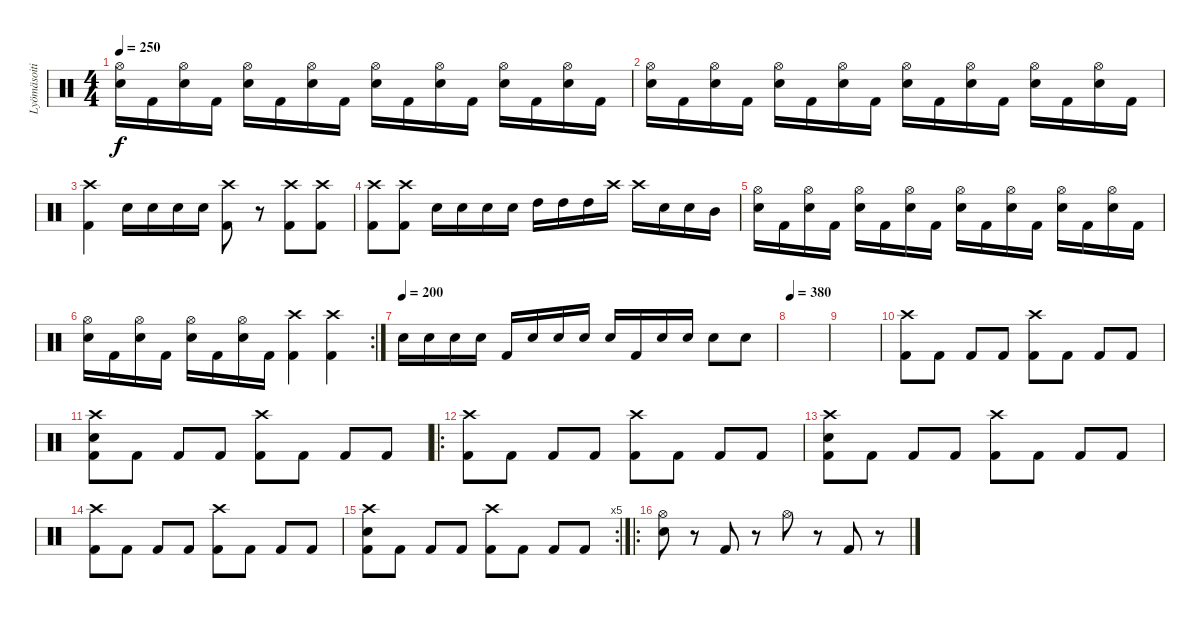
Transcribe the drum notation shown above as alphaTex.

\track ("Lyömäsoitin" "Lyömäsoiti") {instrument percussion}
\staff {score}
\articulation defaults
\ts (4 4)
\tempo 250
\clef neutral
\ks c
("Hi-Hat (open)" "Electric Snare (hit)").16{dy f} "Kick (hit) 2".16 ("Hi-Hat (open)" "Electric Snare (hit)").16 "Kick (hit) 2".16 ("Hi-Hat (open)" "Electric Snare (hit)").16 "Kick (hit) 2".16 ("Hi-Hat (open)" "Electric Snare (hit)").16 "Kick (hit) 2".16 ("Hi-Hat (open)" "Electric Snare (hit)").16 "Kick (hit) 2".16 ("Hi-Hat (open)" "Electric Snare (hit)").16 "Kick (hit) 2".16 ("Hi-Hat (open)" "Electric Snare (hit)").16 "Kick (hit) 2".16 ("Hi-Hat (open)" "Electric Snare (hit)").16 "Kick (hit) 2".16 |
("Hi-Hat (open)" "Electric Snare (hit)").16 "Kick (hit) 2".16 ("Hi-Hat (open)" "Electric Snare (hit)").16 "Kick (hit) 2".16 ("Hi-Hat (open)" "Electric Snare (hit)").16 "Kick (hit) 2".16 ("Hi-Hat (open)" "Electric Snare (hit)").16 "Kick (hit) 2".16 ("Hi-Hat (open)" "Electric Snare (hit)").16 "Kick (hit) 2".16 ("Hi-Hat (open)" "Electric Snare (hit)").16 "Kick (hit) 2".16 ("Hi-Hat (open)" "Electric Snare (hit)").16 "Kick (hit) 2".16 ("Hi-Hat (open)" "Electric Snare (hit)").16 "Kick (hit) 2".16 |
("Crash high (hit)" "Kick (hit) 2").4 "Electric Snare (hit)".16 "Electric Snare (hit)".16 "Electric Snare (hit)".16 "Electric Snare (hit)".16 ("Crash high (hit)" "Kick (hit) 2").8 r.8 ("Crash high (hit)" "Kick (hit) 2").8 ("Crash high (hit)" "Kick (hit) 2").8 |
("Crash high (hit)" "Kick (hit) 2").8 ("Crash high (hit)" "Kick (hit) 2").8 "Electric Snare (hit)".16 "Electric Snare (hit)".16 "Electric Snare (hit)".16 "Electric Snare (hit)".16 "High Tom (hit)".16 "High Tom (hit)".16 "High Tom (hit)".16 "Crash high (hit)".16 "Crash high (hit)".16 "Electric Snare (hit)".16 "Electric Snare (hit)".16 "Mid Tom (hit)".16 |
("Hi-Hat (open)" "Electric Snare (hit)").16 "Kick (hit) 2".16 ("Hi-Hat (open)" "Electric Snare (hit)").16 "Kick (hit) 2".16 ("Hi-Hat (open)" "Electric Snare (hit)").16 "Kick (hit) 2".16 ("Hi-Hat (open)" "Electric Snare (hit)").16 "Kick (hit) 2".16 ("Hi-Hat (open)" "Electric Snare (hit)").16 "Kick (hit) 2".16 ("Hi-Hat (open)" "Electric Snare (hit)").16 "Kick (hit) 2".16 ("Hi-Hat (open)" "Electric Snare (hit)").16 "Kick (hit) 2".16 ("Hi-Hat (open)" "Electric Snare (hit)").16 "Kick (hit) 2".16 |
\rc 2
("Hi-Hat (open)" "Electric Snare (hit)").16 "Kick (hit) 2".16 ("Hi-Hat (open)" "Electric Snare (hit)").16 "Kick (hit) 2".16 ("Hi-Hat (open)" "Electric Snare (hit)").16 "Kick (hit) 2".16 ("Hi-Hat (open)" "Electric Snare (hit)").16 "Kick (hit) 2".16 ("Crash high (hit)" "Kick (hit) 2").4 ("Crash high (hit)" "Kick (hit) 2").4 |
\tempo (200)
"Electric Snare (hit)".16 "Electric Snare (hit)".16 "Electric Snare (hit)".16 "Electric Snare (hit)".16 "Kick (hit) 2".16 "Electric Snare (hit)".16 "Electric Snare (hit)".16 "Electric Snare (hit)".16 "Electric Snare (hit)".16 "Kick (hit) 2".16 "Electric Snare (hit)".16 "Electric Snare (hit)".16 "Electric Snare (hit)".8 "Electric Snare (hit)".8 |
\tempo 380
|
|
("Crash high (hit)" "Kick (hit) 2").8 "Kick (hit) 2".8 "Kick (hit) 2".8 "Kick (hit) 2".8 ("Crash high (hit)" "Kick (hit) 2").8 "Kick (hit) 2".8 "Kick (hit) 2".8 "Kick (hit) 2".8 |
("Crash high (hit)" "Electric Snare (hit)" "Kick (hit) 2").8 "Kick (hit) 2".8 "Kick (hit) 2".8 "Kick (hit) 2".8 ("Crash high (hit)" "Kick (hit) 2").8 "Kick (hit) 2".8 "Kick (hit) 2".8 "Kick (hit) 2".8 |
\ro
("Crash high (hit)" "Kick (hit) 2").8 "Kick (hit) 2".8 "Kick (hit) 2".8 "Kick (hit) 2".8 ("Crash high (hit)" "Kick (hit) 2").8 "Kick (hit) 2".8 "Kick (hit) 2".8 "Kick (hit) 2".8 |
("Crash high (hit)" "Electric Snare (hit)" "Kick (hit) 2").8 "Kick (hit) 2".8 "Kick (hit) 2".8 "Kick (hit) 2".8 ("Crash high (hit)" "Kick (hit) 2").8 "Kick (hit) 2".8 "Kick (hit) 2".8 "Kick (hit) 2".8 |
("Crash high (hit)" "Kick (hit) 2").8 "Kick (hit) 2".8 "Kick (hit) 2".8 "Kick (hit) 2".8 ("Crash high (hit)" "Kick (hit) 2").8 "Kick (hit) 2".8 "Kick (hit) 2".8 "Kick (hit) 2".8 |
\rc 5
("Crash high (hit)" "Electric Snare (hit)" "Kick (hit) 2").8 "Kick (hit) 2".8 "Kick (hit) 2".8 "Kick (hit) 2".8 ("Crash high (hit)" "Kick (hit) 2").8 "Kick (hit) 2".8 "Kick (hit) 2".8 "Kick (hit) 2".8 |
\ro
("Hi-Hat (open)" "Electric Snare (hit)").8 r.8 "Kick (hit) 2".8 r.8 "Hi-Hat (open)".8 r.8 "Kick (hit) 2".8 r.8
